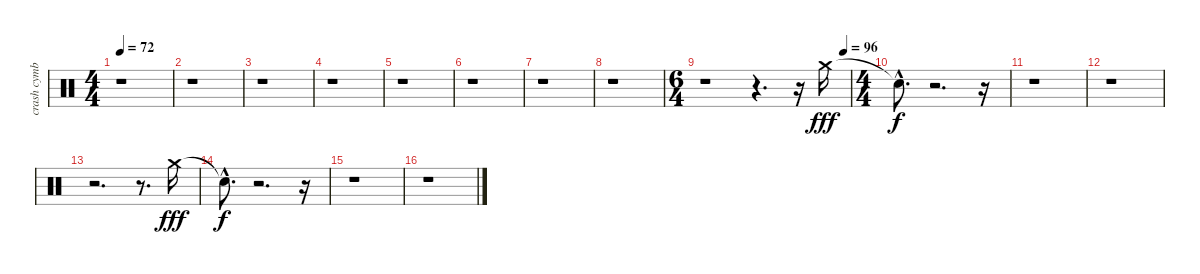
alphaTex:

\track ("crash cymbal" "crash cymb") {instrument percussion}
\staff {score}
\articulation defaults
\ts (4 4)
\tempo 72
\clef neutral
\ks c
r.1{dy fff} |
r.1 |
r.1 |
r.1 |
r.1 |
r.1 |
r.1 |
r.1 |
\ts (6 4)
\tempo (96 0.9583333333333334)
r.1 r.4{d} r.16 "Crash medium (hit)".16 |
\ts (4 4)
"Snare (hit)"{hac t}.8{d dy f} r.2{d} r.16 |
r.1 |
r.1 |
r.2{d} r.8{d} "Crash medium (hit)".16{dy fff} |
"Snare (hit)"{hac t}.8{d dy f} r.2{d} r.16 |
r.1 |
r.1
